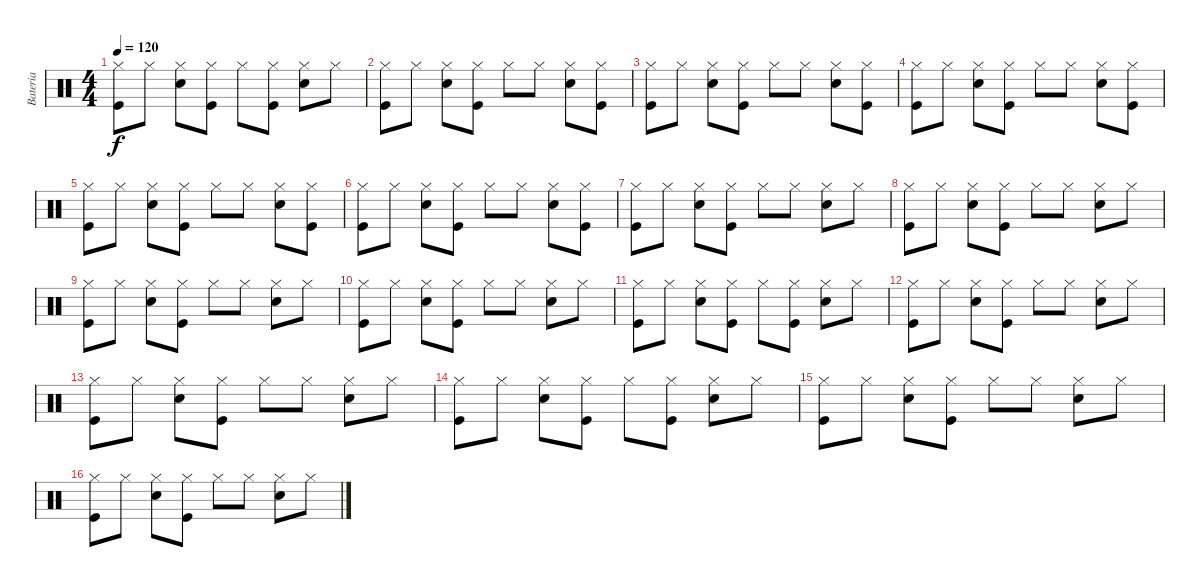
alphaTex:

\track ("Bateria" "Bateria") {instrument percussion}
\staff {score}
\articulation defaults
\ts (4 4)
\tempo 120
\clef neutral
\ks c
("Hi-Hat (closed)" "Kick (hit)").8{dy f} "Hi-Hat (closed)".8 ("Hi-Hat (closed)" "Electric Snare (hit)").8 ("Hi-Hat (closed)" "Kick (hit)").8 "Hi-Hat (closed)".8 ("Hi-Hat (closed)" "Kick (hit)").8 ("Hi-Hat (closed)" "Electric Snare (hit)").8 "Hi-Hat (closed)".8 |
("Hi-Hat (closed)" "Kick (hit)").8 "Hi-Hat (closed)".8 ("Hi-Hat (closed)" "Electric Snare (hit)").8 ("Hi-Hat (closed)" "Kick (hit)").8 "Hi-Hat (closed)".8 "Hi-Hat (closed)".8 ("Hi-Hat (closed)" "Electric Snare (hit)").8 ("Hi-Hat (closed)" "Kick (hit)").8 |
("Hi-Hat (closed)" "Kick (hit)").8 "Hi-Hat (closed)".8 ("Hi-Hat (closed)" "Electric Snare (hit)").8 ("Hi-Hat (closed)" "Kick (hit)").8 "Hi-Hat (closed)".8 "Hi-Hat (closed)".8 ("Hi-Hat (closed)" "Electric Snare (hit)").8 ("Hi-Hat (closed)" "Kick (hit)").8 |
("Hi-Hat (closed)" "Kick (hit)").8 "Hi-Hat (closed)".8 ("Hi-Hat (closed)" "Electric Snare (hit)").8 ("Hi-Hat (closed)" "Kick (hit)").8 "Hi-Hat (closed)".8 "Hi-Hat (closed)".8 ("Hi-Hat (closed)" "Electric Snare (hit)").8 ("Hi-Hat (closed)" "Kick (hit)").8 |
("Hi-Hat (closed)" "Kick (hit)").8 "Hi-Hat (closed)".8 ("Hi-Hat (closed)" "Electric Snare (hit)").8 ("Hi-Hat (closed)" "Kick (hit)").8 "Hi-Hat (closed)".8 "Hi-Hat (closed)".8 ("Hi-Hat (closed)" "Electric Snare (hit)").8 ("Hi-Hat (closed)" "Kick (hit)").8 |
("Hi-Hat (closed)" "Kick (hit)").8 "Hi-Hat (closed)".8 ("Hi-Hat (closed)" "Electric Snare (hit)").8 ("Hi-Hat (closed)" "Kick (hit)").8 "Hi-Hat (closed)".8 "Hi-Hat (closed)".8 ("Hi-Hat (closed)" "Electric Snare (hit)").8 ("Hi-Hat (closed)" "Kick (hit)").8 |
("Hi-Hat (closed)" "Kick (hit)").8 "Hi-Hat (closed)".8 ("Hi-Hat (closed)" "Electric Snare (hit)").8 ("Hi-Hat (closed)" "Kick (hit)").8 "Hi-Hat (closed)".8 "Hi-Hat (closed)".8 ("Hi-Hat (closed)" "Electric Snare (hit)").8 "Hi-Hat (closed)".8 |
("Hi-Hat (closed)" "Kick (hit)").8 "Hi-Hat (closed)".8 ("Hi-Hat (closed)" "Electric Snare (hit)").8 ("Hi-Hat (closed)" "Kick (hit)").8 "Hi-Hat (closed)".8 "Hi-Hat (closed)".8 ("Hi-Hat (closed)" "Electric Snare (hit)").8 "Hi-Hat (closed)".8 |
("Hi-Hat (closed)" "Kick (hit)").8 "Hi-Hat (closed)".8 ("Hi-Hat (closed)" "Electric Snare (hit)").8 ("Hi-Hat (closed)" "Kick (hit)").8 "Hi-Hat (closed)".8 "Hi-Hat (closed)".8 ("Hi-Hat (closed)" "Electric Snare (hit)").8 "Hi-Hat (closed)".8 |
("Hi-Hat (closed)" "Kick (hit)").8 "Hi-Hat (closed)".8 ("Hi-Hat (closed)" "Electric Snare (hit)").8 ("Hi-Hat (closed)" "Kick (hit)").8 "Hi-Hat (closed)".8 "Hi-Hat (closed)".8 ("Hi-Hat (closed)" "Electric Snare (hit)").8 "Hi-Hat (closed)".8 |
("Hi-Hat (closed)" "Kick (hit)").8 "Hi-Hat (closed)".8 ("Hi-Hat (closed)" "Electric Snare (hit)").8 ("Hi-Hat (closed)" "Kick (hit)").8 "Hi-Hat (closed)".8 ("Hi-Hat (closed)" "Kick (hit)").8 ("Hi-Hat (closed)" "Electric Snare (hit)").8 "Hi-Hat (closed)".8 |
("Hi-Hat (closed)" "Kick (hit)").8 "Hi-Hat (closed)".8 ("Hi-Hat (closed)" "Electric Snare (hit)").8 ("Hi-Hat (closed)" "Kick (hit)").8 "Hi-Hat (closed)".8 "Hi-Hat (closed)".8 ("Hi-Hat (closed)" "Electric Snare (hit)").8 "Hi-Hat (closed)".8 |
("Hi-Hat (closed)" "Kick (hit)").8 "Hi-Hat (closed)".8 ("Hi-Hat (closed)" "Electric Snare (hit)").8 ("Hi-Hat (closed)" "Kick (hit)").8 "Hi-Hat (closed)".8 "Hi-Hat (closed)".8 ("Hi-Hat (closed)" "Electric Snare (hit)").8 "Hi-Hat (closed)".8 |
("Hi-Hat (closed)" "Kick (hit)").8 "Hi-Hat (closed)".8 ("Hi-Hat (closed)" "Electric Snare (hit)").8 ("Hi-Hat (closed)" "Kick (hit)").8 "Hi-Hat (closed)".8 ("Hi-Hat (closed)" "Kick (hit)").8 ("Hi-Hat (closed)" "Electric Snare (hit)").8 "Hi-Hat (closed)".8 |
("Hi-Hat (closed)" "Kick (hit)").8 "Hi-Hat (closed)".8 ("Hi-Hat (closed)" "Electric Snare (hit)").8 ("Hi-Hat (closed)" "Kick (hit)").8 "Hi-Hat (closed)".8 "Hi-Hat (closed)".8 ("Hi-Hat (closed)" "Electric Snare (hit)").8 "Hi-Hat (closed)".8 |
("Hi-Hat (closed)" "Kick (hit)").8 "Hi-Hat (closed)".8 ("Hi-Hat (closed)" "Electric Snare (hit)").8 ("Hi-Hat (closed)" "Kick (hit)").8 "Hi-Hat (closed)".8 "Hi-Hat (closed)".8 ("Hi-Hat (closed)" "Electric Snare (hit)").8 "Hi-Hat (closed)".8
